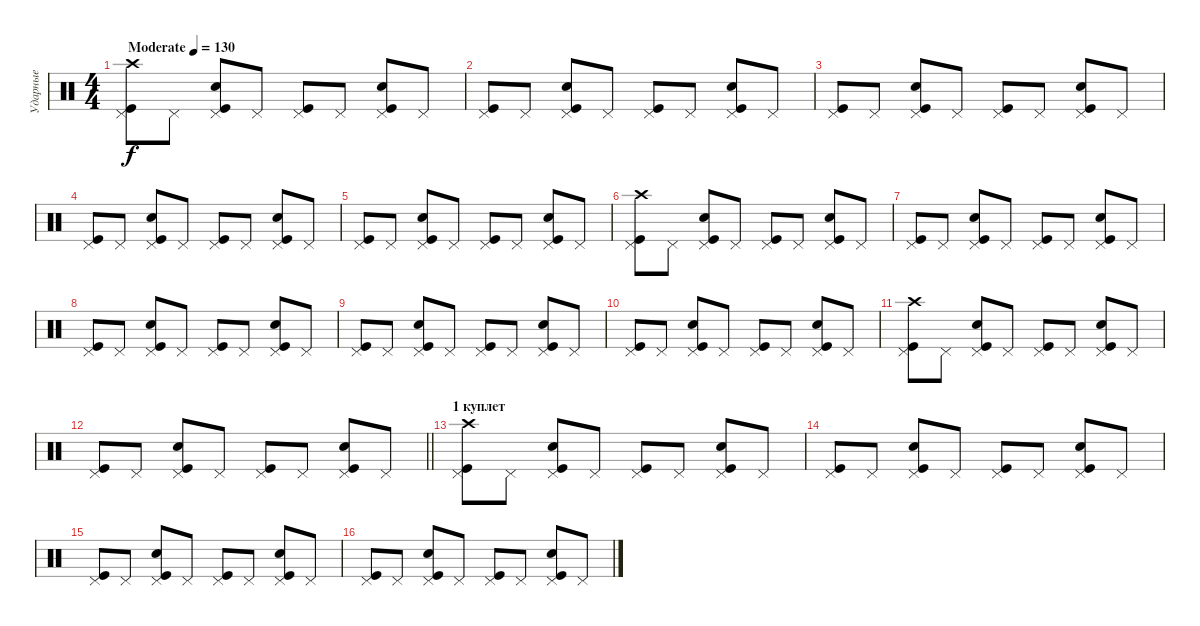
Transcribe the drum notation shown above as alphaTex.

\track ("Ударные" "Ударные") {instrument percussion}
\staff {score}
\articulation defaults
\ts (4 4)
\tempo (130 "Moderate")
\clef neutral
\ks c
("Pedal Hi-Hat (hit)" "Kick (hit)" "Crash high (hit)").8{dy f} "Pedal Hi-Hat (hit)".8 ("Pedal Hi-Hat (hit)" "Kick (hit)" "Snare (hit) 2").8 "Pedal Hi-Hat (hit)".8 ("Pedal Hi-Hat (hit)" "Kick (hit)").8 "Pedal Hi-Hat (hit)".8 ("Pedal Hi-Hat (hit)" "Kick (hit)" "Snare (hit) 2").8 "Pedal Hi-Hat (hit)".8 |
("Pedal Hi-Hat (hit)" "Kick (hit)").8 "Pedal Hi-Hat (hit)".8 ("Pedal Hi-Hat (hit)" "Kick (hit)" "Snare (hit) 2").8 "Pedal Hi-Hat (hit)".8 ("Pedal Hi-Hat (hit)" "Kick (hit)").8 "Pedal Hi-Hat (hit)".8 ("Pedal Hi-Hat (hit)" "Kick (hit)" "Snare (hit) 2").8 "Pedal Hi-Hat (hit)".8 |
("Pedal Hi-Hat (hit)" "Kick (hit)").8 "Pedal Hi-Hat (hit)".8 ("Pedal Hi-Hat (hit)" "Kick (hit)" "Snare (hit) 2").8 "Pedal Hi-Hat (hit)".8 ("Pedal Hi-Hat (hit)" "Kick (hit)").8 "Pedal Hi-Hat (hit)".8 ("Pedal Hi-Hat (hit)" "Kick (hit)" "Snare (hit) 2").8 "Pedal Hi-Hat (hit)".8 |
("Pedal Hi-Hat (hit)" "Kick (hit)").8 "Pedal Hi-Hat (hit)".8 ("Pedal Hi-Hat (hit)" "Kick (hit)" "Snare (hit) 2").8 "Pedal Hi-Hat (hit)".8 ("Pedal Hi-Hat (hit)" "Kick (hit)").8 "Pedal Hi-Hat (hit)".8 ("Pedal Hi-Hat (hit)" "Kick (hit)" "Snare (hit) 2").8 "Pedal Hi-Hat (hit)".8 |
("Pedal Hi-Hat (hit)" "Kick (hit)").8 "Pedal Hi-Hat (hit)".8 ("Pedal Hi-Hat (hit)" "Kick (hit)" "Snare (hit) 2").8 "Pedal Hi-Hat (hit)".8 ("Pedal Hi-Hat (hit)" "Kick (hit)").8 "Pedal Hi-Hat (hit)".8 ("Pedal Hi-Hat (hit)" "Kick (hit)" "Snare (hit) 2").8 "Pedal Hi-Hat (hit)".8 |
("Pedal Hi-Hat (hit)" "Kick (hit)" "Crash high (hit)").8 "Pedal Hi-Hat (hit)".8 ("Pedal Hi-Hat (hit)" "Kick (hit)" "Snare (hit) 2").8 "Pedal Hi-Hat (hit)".8 ("Pedal Hi-Hat (hit)" "Kick (hit)").8 "Pedal Hi-Hat (hit)".8 ("Pedal Hi-Hat (hit)" "Kick (hit)" "Snare (hit) 2").8 "Pedal Hi-Hat (hit)".8 |
("Pedal Hi-Hat (hit)" "Kick (hit)").8 "Pedal Hi-Hat (hit)".8 ("Pedal Hi-Hat (hit)" "Kick (hit)" "Snare (hit) 2").8 "Pedal Hi-Hat (hit)".8 ("Pedal Hi-Hat (hit)" "Kick (hit)").8 "Pedal Hi-Hat (hit)".8 ("Pedal Hi-Hat (hit)" "Kick (hit)" "Snare (hit) 2").8 "Pedal Hi-Hat (hit)".8 |
("Pedal Hi-Hat (hit)" "Kick (hit)").8 "Pedal Hi-Hat (hit)".8 ("Pedal Hi-Hat (hit)" "Kick (hit)" "Snare (hit) 2").8 "Pedal Hi-Hat (hit)".8 ("Pedal Hi-Hat (hit)" "Kick (hit)").8 "Pedal Hi-Hat (hit)".8 ("Pedal Hi-Hat (hit)" "Kick (hit)" "Snare (hit) 2").8 "Pedal Hi-Hat (hit)".8 |
("Pedal Hi-Hat (hit)" "Kick (hit)").8 "Pedal Hi-Hat (hit)".8 ("Pedal Hi-Hat (hit)" "Kick (hit)" "Snare (hit) 2").8 "Pedal Hi-Hat (hit)".8 ("Pedal Hi-Hat (hit)" "Kick (hit)").8 "Pedal Hi-Hat (hit)".8 ("Pedal Hi-Hat (hit)" "Kick (hit)" "Snare (hit) 2").8 "Pedal Hi-Hat (hit)".8 |
("Pedal Hi-Hat (hit)" "Kick (hit)").8 "Pedal Hi-Hat (hit)".8 ("Pedal Hi-Hat (hit)" "Kick (hit)" "Snare (hit) 2").8 "Pedal Hi-Hat (hit)".8 ("Pedal Hi-Hat (hit)" "Kick (hit)").8 "Pedal Hi-Hat (hit)".8 ("Pedal Hi-Hat (hit)" "Kick (hit)" "Snare (hit) 2").8 "Pedal Hi-Hat (hit)".8 |
("Pedal Hi-Hat (hit)" "Kick (hit)" "Crash high (hit)").8 "Pedal Hi-Hat (hit)".8 ("Pedal Hi-Hat (hit)" "Kick (hit)" "Snare (hit) 2").8 "Pedal Hi-Hat (hit)".8 ("Pedal Hi-Hat (hit)" "Kick (hit)").8 "Pedal Hi-Hat (hit)".8 ("Pedal Hi-Hat (hit)" "Kick (hit)" "Snare (hit) 2").8 "Pedal Hi-Hat (hit)".8 |
\barLineRight lightlight
("Pedal Hi-Hat (hit)" "Kick (hit)").8 "Pedal Hi-Hat (hit)".8 ("Pedal Hi-Hat (hit)" "Kick (hit)" "Snare (hit) 2").8 "Pedal Hi-Hat (hit)".8 ("Pedal Hi-Hat (hit)" "Kick (hit)").8 "Pedal Hi-Hat (hit)".8 ("Pedal Hi-Hat (hit)" "Kick (hit)" "Snare (hit) 2").8 "Pedal Hi-Hat (hit)".8 |
\section ("" "1 куплет")
("Pedal Hi-Hat (hit)" "Kick (hit)" "Crash high (hit)").8 "Pedal Hi-Hat (hit)".8 ("Pedal Hi-Hat (hit)" "Kick (hit)" "Snare (hit) 2").8 "Pedal Hi-Hat (hit)".8 ("Pedal Hi-Hat (hit)" "Kick (hit)").8 "Pedal Hi-Hat (hit)".8 ("Pedal Hi-Hat (hit)" "Kick (hit)" "Snare (hit) 2").8 "Pedal Hi-Hat (hit)".8 |
("Pedal Hi-Hat (hit)" "Kick (hit)").8 "Pedal Hi-Hat (hit)".8 ("Pedal Hi-Hat (hit)" "Kick (hit)" "Snare (hit) 2").8 "Pedal Hi-Hat (hit)".8 ("Pedal Hi-Hat (hit)" "Kick (hit)").8 "Pedal Hi-Hat (hit)".8 ("Pedal Hi-Hat (hit)" "Kick (hit)" "Snare (hit) 2").8 "Pedal Hi-Hat (hit)".8 |
("Pedal Hi-Hat (hit)" "Kick (hit)").8 "Pedal Hi-Hat (hit)".8 ("Pedal Hi-Hat (hit)" "Kick (hit)" "Snare (hit) 2").8 "Pedal Hi-Hat (hit)".8 ("Pedal Hi-Hat (hit)" "Kick (hit)").8 "Pedal Hi-Hat (hit)".8 ("Pedal Hi-Hat (hit)" "Kick (hit)" "Snare (hit) 2").8 "Pedal Hi-Hat (hit)".8 |
("Pedal Hi-Hat (hit)" "Kick (hit)").8 "Pedal Hi-Hat (hit)".8 ("Pedal Hi-Hat (hit)" "Kick (hit)" "Snare (hit) 2").8 "Pedal Hi-Hat (hit)".8 ("Pedal Hi-Hat (hit)" "Kick (hit)").8 "Pedal Hi-Hat (hit)".8 ("Pedal Hi-Hat (hit)" "Kick (hit)" "Snare (hit) 2").8 "Pedal Hi-Hat (hit)".8
